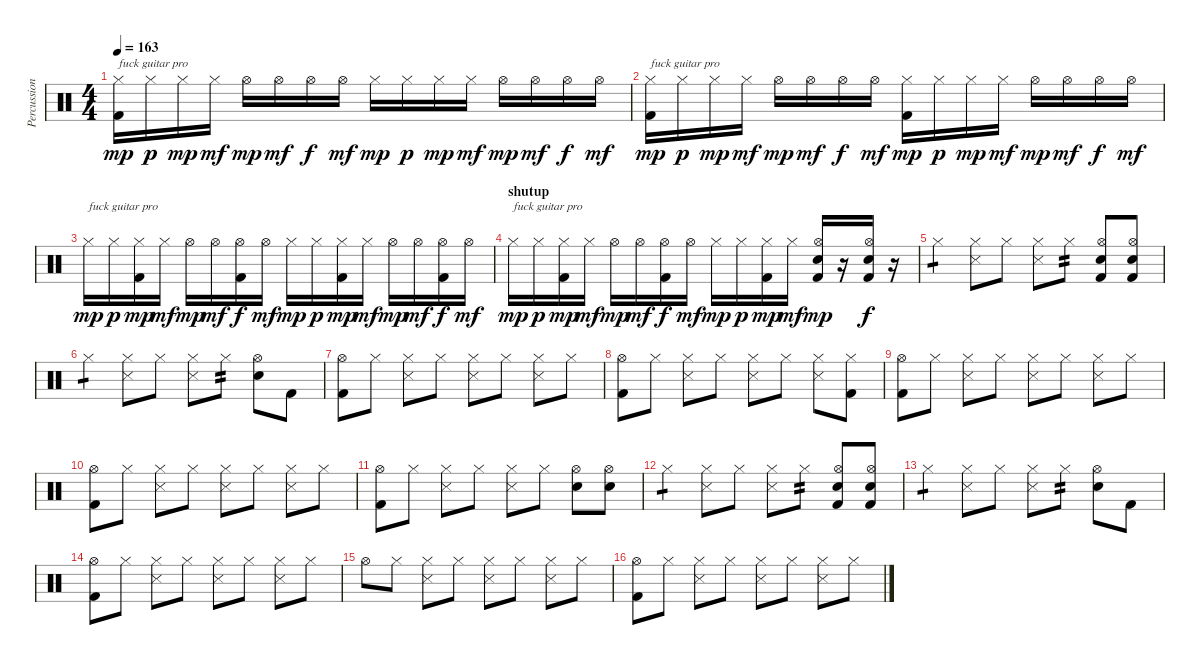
\track ("Percussion" "Percussion") {instrument percussion}
\staff {score}
\articulation defaults
\ts (4 4)
\section ("" "")
\tempo 163
\clef neutral
\ks c
("Hi-Hat (closed)" "Kick (hit) 2").16{txt "fuck guitar pro" dy mp} "Hi-Hat (closed)".16{dy p} "Hi-Hat (closed)".16{dy mp} "Hi-Hat (closed)".16{dy mf} "Hi-Hat (open)".16{dy mp} "Hi-Hat (open)".16{dy mf} "Hi-Hat (open)".16{dy f} "Hi-Hat (open)".16{dy mf} "Hi-Hat (closed)".16{dy mp} "Hi-Hat (closed)".16{dy p} "Hi-Hat (closed)".16{dy mp} "Hi-Hat (closed)".16{dy mf} "Hi-Hat (open)".16{dy mp} "Hi-Hat (open)".16{dy mf} "Hi-Hat (open)".16{dy f} "Hi-Hat (open)".16{dy mf} |
("Hi-Hat (closed)" "Kick (hit) 2").16{txt "fuck guitar pro" dy mp} "Hi-Hat (closed)".16{dy p} "Hi-Hat (closed)".16{dy mp} "Hi-Hat (closed)".16{dy mf} "Hi-Hat (open)".16{dy mp} "Hi-Hat (open)".16{dy mf} "Hi-Hat (open)".16{dy f} "Hi-Hat (open)".16{dy mf} ("Hi-Hat (closed)" "Kick (hit) 2").16{dy mp} "Hi-Hat (closed)".16{dy p} "Hi-Hat (closed)".16{dy mp} "Hi-Hat (closed)".16{dy mf} "Hi-Hat (open)".16{dy mp} "Hi-Hat (open)".16{dy mf} "Hi-Hat (open)".16{dy f} "Hi-Hat (open)".16{dy mf} |
"Hi-Hat (closed)".16{txt "fuck guitar pro" dy mp} "Hi-Hat (closed)".16{dy p} ("Hi-Hat (closed)" "Kick (hit) 2").16{dy mp} "Hi-Hat (closed)".16{dy mf} "Hi-Hat (open)".16{dy mp} "Hi-Hat (open)".16{dy mf} ("Hi-Hat (open)" "Kick (hit) 2").16{dy f} "Hi-Hat (open)".16{dy mf} "Hi-Hat (closed)".16{dy mp} "Hi-Hat (closed)".16{dy p} ("Hi-Hat (closed)" "Kick (hit) 2").16{dy mp} "Hi-Hat (closed)".16{dy mf} "Hi-Hat (open)".16{dy mp} "Hi-Hat (open)".16{dy mf} ("Hi-Hat (open)" "Kick (hit) 2").16{dy f} "Hi-Hat (open)".16{dy mf} |
\section ("" "shutup")
"Hi-Hat (closed)".16{txt "fuck guitar pro" dy mp} "Hi-Hat (closed)".16{dy p} ("Hi-Hat (closed)" "Kick (hit) 2").16{dy mp} "Hi-Hat (closed)".16{dy mf} "Hi-Hat (open)".16{dy mp} "Hi-Hat (open)".16{dy mf} ("Hi-Hat (open)" "Kick (hit) 2").16{dy f} "Hi-Hat (open)".16{dy mf} "Hi-Hat (closed)".16{dy mp} "Hi-Hat (closed)".16{dy p} ("Hi-Hat (closed)" "Kick (hit) 2").16{dy mp} "Hi-Hat (closed)".16{dy mf} ("Hi-Hat (open)" "Electric Snare (hit)" "Kick (hit) 2").16{dy mp} r.16 ("Hi-Hat (open)" "Electric Snare (hit)" "Kick (hit) 2").16{dy f} r.16 |
"Hi-Hat (closed)".4{tp 1} ("Hi-Hat (closed)" "Snare (side stick) 3").8 "Hi-Hat (closed)".8 ("Hi-Hat (closed)" "Snare (side stick) 3").8 "Hi-Hat (closed)".8{tp 2} ("Hi-Hat (open)" "Electric Snare (hit)" "Kick (hit) 2").8 ("Hi-Hat (open)" "Electric Snare (hit)" "Kick (hit) 2").8 |
"Hi-Hat (closed)".4{tp 1} ("Hi-Hat (closed)" "Snare (side stick) 3").8 "Hi-Hat (closed)".8 ("Hi-Hat (closed)" "Snare (side stick) 3").8 "Hi-Hat (closed)".8{tp 2} ("Hi-Hat (open)" "Electric Snare (hit)").8 "Kick (hit) 2".8 |
("Hi-Hat (open)" "Kick (hit) 2").8 "Hi-Hat (closed)".8 ("Hi-Hat (closed)" "Snare (side stick) 3").8 "Hi-Hat (closed)".8 ("Hi-Hat (closed)" "Snare (side stick) 3").8 "Hi-Hat (closed)".8 ("Hi-Hat (closed)" "Snare (side stick) 3").8 "Hi-Hat (closed)".8 |
("Hi-Hat (open)" "Kick (hit) 2").8 "Hi-Hat (closed)".8 ("Hi-Hat (closed)" "Snare (side stick) 3").8 "Hi-Hat (closed)".8 ("Hi-Hat (closed)" "Snare (side stick) 3").8 "Hi-Hat (closed)".8 ("Hi-Hat (closed)" "Snare (side stick) 3").8 ("Hi-Hat (closed)" "Kick (hit) 2").8 |
("Hi-Hat (open)" "Kick (hit) 2").8 "Hi-Hat (closed)".8 ("Hi-Hat (closed)" "Snare (side stick) 3").8 "Hi-Hat (closed)".8 ("Hi-Hat (closed)" "Snare (side stick) 3").8 "Hi-Hat (closed)".8 ("Hi-Hat (closed)" "Snare (side stick) 3").8 "Hi-Hat (closed)".8 |
("Hi-Hat (open)" "Kick (hit) 2").8 "Hi-Hat (closed)".8 ("Hi-Hat (closed)" "Snare (side stick) 3").8 "Hi-Hat (closed)".8 ("Hi-Hat (closed)" "Snare (side stick) 3").8 "Hi-Hat (closed)".8 ("Hi-Hat (closed)" "Snare (side stick) 3").8 "Hi-Hat (closed)".8 |
("Hi-Hat (open)" "Kick (hit) 2").8 "Hi-Hat (closed)".8 ("Hi-Hat (closed)" "Snare (side stick) 3").8 "Hi-Hat (closed)".8 ("Hi-Hat (closed)" "Snare (side stick) 3").8 "Hi-Hat (closed)".8 ("Hi-Hat (open)" "Electric Snare (hit)").8 ("Hi-Hat (open)" "Electric Snare (hit)").8 |
"Hi-Hat (closed)".4{tp 1} ("Hi-Hat (closed)" "Snare (side stick) 3").8 "Hi-Hat (closed)".8 ("Hi-Hat (closed)" "Snare (side stick) 3").8 "Hi-Hat (closed)".8{tp 2} ("Hi-Hat (open)" "Electric Snare (hit)" "Kick (hit) 2").8 ("Hi-Hat (open)" "Electric Snare (hit)" "Kick (hit) 2").8 |
"Hi-Hat (closed)".4{tp 1} ("Hi-Hat (closed)" "Snare (side stick) 3").8 "Hi-Hat (closed)".8 ("Hi-Hat (closed)" "Snare (side stick) 3").8 "Hi-Hat (closed)".8{tp 2} ("Hi-Hat (open)" "Electric Snare (hit)").8 "Kick (hit) 2".8 |
("Hi-Hat (open)" "Kick (hit) 2").8 "Hi-Hat (closed)".8 ("Hi-Hat (closed)" "Snare (side stick) 3").8 "Hi-Hat (closed)".8 ("Hi-Hat (closed)" "Snare (side stick) 3").8 "Hi-Hat (closed)".8 ("Hi-Hat (closed)" "Snare (side stick) 3").8 "Hi-Hat (closed)".8 |
"Hi-Hat (open)".8 "Hi-Hat (closed)".8 ("Hi-Hat (closed)" "Snare (side stick) 3").8 "Hi-Hat (closed)".8 ("Hi-Hat (closed)" "Snare (side stick) 3").8 "Hi-Hat (closed)".8 ("Hi-Hat (closed)" "Snare (side stick) 3").8 "Hi-Hat (closed)".8 |
("Hi-Hat (open)" "Kick (hit) 2").8 "Hi-Hat (closed)".8 ("Hi-Hat (closed)" "Snare (side stick) 3").8 "Hi-Hat (closed)".8 ("Hi-Hat (closed)" "Snare (side stick) 3").8 "Hi-Hat (closed)".8 ("Hi-Hat (closed)" "Snare (side stick) 3").8 "Hi-Hat (closed)".8
